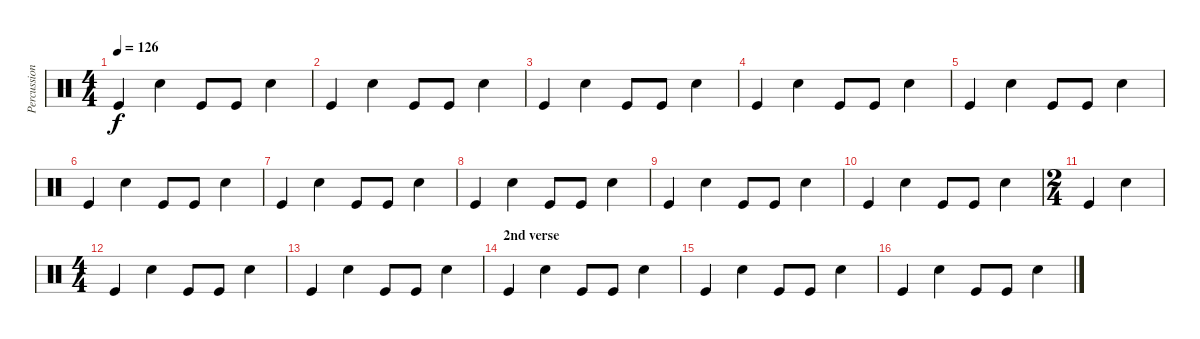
\track ("Percussion" "Percussion") {instrument percussion}
\staff {score}
\articulation defaults
\ts (4 4)
\tempo 126
\clef neutral
\ks c "Kick (hit)".4{dy f} "Snare (hit) 2".4 "Kick (hit)".8 "Kick (hit)".8 "Snare (hit) 2".4
|
"Kick (hit)".4 "Snare (hit) 2".4 "Kick (hit)".8 "Kick (hit)".8 "Snare (hit) 2".4 |
"Kick (hit)".4 "Snare (hit) 2".4 "Kick (hit)".8 "Kick (hit)".8 "Snare (hit) 2".4 |
"Kick (hit)".4 "Snare (hit) 2".4 "Kick (hit)".8 "Kick (hit)".8 "Snare (hit) 2".4 |
"Kick (hit)".4 "Snare (hit) 2".4 "Kick (hit)".8 "Kick (hit)".8 "Snare (hit) 2".4 |
"Kick (hit)".4 "Snare (hit) 2".4 "Kick (hit)".8 "Kick (hit)".8 "Snare (hit) 2".4 |
"Kick (hit)".4 "Snare (hit) 2".4 "Kick (hit)".8 "Kick (hit)".8 "Snare (hit) 2".4 |
"Kick (hit)".4 "Snare (hit) 2".4 "Kick (hit)".8 "Kick (hit)".8 "Snare (hit) 2".4 |
"Kick (hit)".4 "Snare (hit) 2".4 "Kick (hit)".8 "Kick (hit)".8 "Snare (hit) 2".4 |
"Kick (hit)".4 "Snare (hit) 2".4 "Kick (hit)".8 "Kick (hit)".8 "Snare (hit) 2".4 |
\ts (2 4)
"Kick (hit)".4 "Snare (hit) 2".4 |
\ts (4 4)
"Kick (hit)".4 "Snare (hit) 2".4 "Kick (hit)".8 "Kick (hit)".8 "Snare (hit) 2".4 |
"Kick (hit)".4 "Snare (hit) 2".4 "Kick (hit)".8 "Kick (hit)".8 "Snare (hit) 2".4 |
\section ("" "2nd verse")
"Kick (hit)".4 "Snare (hit) 2".4 "Kick (hit)".8 "Kick (hit)".8 "Snare (hit) 2".4 |
"Kick (hit)".4 "Snare (hit) 2".4 "Kick (hit)".8 "Kick (hit)".8 "Snare (hit) 2".4 |
"Kick (hit)".4 "Snare (hit) 2".4 "Kick (hit)".8 "Kick (hit)".8 "Snare (hit) 2".4
